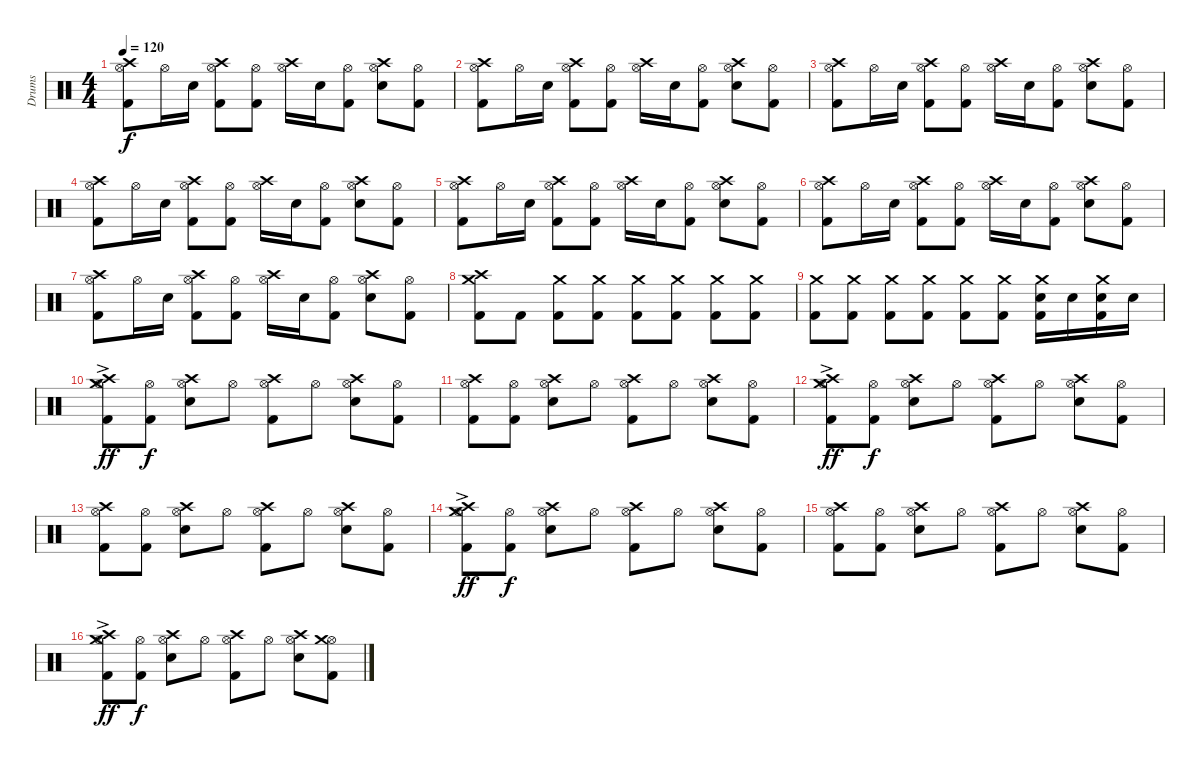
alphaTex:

\track ("Drums" "Drums") {instrument percussion}
\staff {score}
\articulation defaults
\ts (4 4)
\tempo 120
\clef neutral
\ks c
("Hi-Hat (open)" "Crash high (hit)" "Kick (hit) 2").8{dy f} "Hi-Hat (open)".16 "Electric Snare (hit)".16 ("Hi-Hat (open)" "Crash high (hit)" "Kick (hit) 2").8 ("Hi-Hat (open)" "Kick (hit) 2").8 ("Hi-Hat (open)" "Crash high (hit)").16 "Electric Snare (hit)".16 ("Hi-Hat (open)" "Kick (hit) 2").8 ("Hi-Hat (open)" "Crash high (hit)" "Electric Snare (hit)").8 ("Hi-Hat (open)" "Kick (hit) 2").8 |
("Hi-Hat (open)" "Crash high (hit)" "Kick (hit) 2").8 "Hi-Hat (open)".16 "Electric Snare (hit)".16 ("Hi-Hat (open)" "Crash high (hit)" "Kick (hit) 2").8 ("Hi-Hat (open)" "Kick (hit) 2").8 ("Hi-Hat (open)" "Crash high (hit)").16 "Electric Snare (hit)".16 ("Hi-Hat (open)" "Kick (hit) 2").8 ("Hi-Hat (open)" "Crash high (hit)" "Electric Snare (hit)").8 ("Hi-Hat (open)" "Kick (hit) 2").8 |
("Hi-Hat (open)" "Crash high (hit)" "Kick (hit) 2").8 "Hi-Hat (open)".16 "Electric Snare (hit)".16 ("Hi-Hat (open)" "Crash high (hit)" "Kick (hit) 2").8 ("Hi-Hat (open)" "Kick (hit) 2").8 ("Hi-Hat (open)" "Crash high (hit)").16 "Electric Snare (hit)".16 ("Hi-Hat (open)" "Kick (hit) 2").8 ("Hi-Hat (open)" "Crash high (hit)" "Electric Snare (hit)").8 ("Hi-Hat (open)" "Kick (hit) 2").8 |
("Hi-Hat (open)" "Crash high (hit)" "Kick (hit) 2").8 "Hi-Hat (open)".16 "Electric Snare (hit)".16 ("Hi-Hat (open)" "Crash high (hit)" "Kick (hit) 2").8 ("Hi-Hat (open)" "Kick (hit) 2").8 ("Hi-Hat (open)" "Crash high (hit)").16 "Electric Snare (hit)".16 ("Hi-Hat (open)" "Kick (hit) 2").8 ("Hi-Hat (open)" "Crash high (hit)" "Electric Snare (hit)").8 ("Hi-Hat (open)" "Kick (hit) 2").8 |
("Hi-Hat (open)" "Crash high (hit)" "Kick (hit) 2").8 "Hi-Hat (open)".16 "Electric Snare (hit)".16 ("Hi-Hat (open)" "Crash high (hit)" "Kick (hit) 2").8 ("Hi-Hat (open)" "Kick (hit) 2").8 ("Hi-Hat (open)" "Crash high (hit)").16 "Electric Snare (hit)".16 ("Hi-Hat (open)" "Kick (hit) 2").8 ("Hi-Hat (open)" "Crash high (hit)" "Electric Snare (hit)").8 ("Hi-Hat (open)" "Kick (hit) 2").8 |
("Hi-Hat (open)" "Crash high (hit)" "Kick (hit) 2").8 "Hi-Hat (open)".16 "Electric Snare (hit)".16 ("Hi-Hat (open)" "Crash high (hit)" "Kick (hit) 2").8 ("Hi-Hat (open)" "Kick (hit) 2").8 ("Hi-Hat (open)" "Crash high (hit)").16 "Electric Snare (hit)".16 ("Hi-Hat (open)" "Kick (hit) 2").8 ("Hi-Hat (open)" "Crash high (hit)" "Electric Snare (hit)").8 ("Hi-Hat (open)" "Kick (hit) 2").8 |
("Hi-Hat (open)" "Crash high (hit)" "Kick (hit) 2").8 "Hi-Hat (open)".16 "Electric Snare (hit)".16 ("Hi-Hat (open)" "Crash high (hit)" "Kick (hit) 2").8 ("Hi-Hat (open)" "Kick (hit) 2").8 ("Hi-Hat (open)" "Crash high (hit)").16 "Electric Snare (hit)".16 ("Hi-Hat (open)" "Kick (hit) 2").8 ("Hi-Hat (open)" "Crash high (hit)" "Electric Snare (hit)").8 ("Hi-Hat (open)" "Kick (hit) 2").8 |
("Crash high (hit)" "Crash medium (hit)" "Kick (hit) 2").8 "Kick (hit) 2".8{volume 2} ("Crash medium (hit)" "Kick (hit) 2").8{volume 13} ("Crash medium (hit)" "Kick (hit) 2").8 ("Crash medium (hit)" "Kick (hit) 2").8 ("Crash medium (hit)" "Kick (hit) 2").8 ("Crash medium (hit)" "Kick (hit) 2").8 ("Crash medium (hit)" "Kick (hit) 2").8 |
("Crash medium (hit)" "Kick (hit) 2").8 ("Crash medium (hit)" "Kick (hit) 2").8 ("Crash medium (hit)" "Kick (hit) 2").8 ("Crash medium (hit)" "Kick (hit) 2").8 ("Crash medium (hit)" "Kick (hit) 2").8 ("Crash medium (hit)" "Kick (hit) 2").8 ("Crash medium (hit)" "Electric Snare (hit)" "Kick (hit) 2").16 "Electric Snare (hit)".16 ("Crash medium (hit)" "Electric Snare (hit)" "Kick (hit) 2").16 "Electric Snare (hit)".16 |
("Crash high (hit)" "Hi-Hat (open)" "Crash medium (hit)"{ac} "Kick (hit) 2").8{dy ff} ("Hi-Hat (open)" "Kick (hit) 2").8{dy f} ("Crash high (hit)" "Hi-Hat (open)" "Electric Snare (hit)").8 "Hi-Hat (open)".8 ("Crash high (hit)" "Hi-Hat (open)" "Kick (hit) 2").8 "Hi-Hat (open)".8 ("Crash high (hit)" "Hi-Hat (open)" "Electric Snare (hit)").8 ("Hi-Hat (open)" "Kick (hit) 2").8 |
("Crash high (hit)" "Hi-Hat (open)" "Kick (hit) 2").8 ("Hi-Hat (open)" "Kick (hit) 2").8 ("Crash high (hit)" "Hi-Hat (open)" "Electric Snare (hit)").8 "Hi-Hat (open)".8 ("Crash high (hit)" "Hi-Hat (open)" "Kick (hit) 2").8 "Hi-Hat (open)".8 ("Crash high (hit)" "Hi-Hat (open)" "Electric Snare (hit)").8 ("Hi-Hat (open)" "Kick (hit) 2").8 |
("Crash high (hit)" "Hi-Hat (open)" "Crash medium (hit)"{ac} "Kick (hit) 2").8{dy ff} ("Hi-Hat (open)" "Kick (hit) 2").8{dy f} ("Crash high (hit)" "Hi-Hat (open)" "Electric Snare (hit)").8 "Hi-Hat (open)".8 ("Crash high (hit)" "Hi-Hat (open)" "Kick (hit) 2").8 "Hi-Hat (open)".8 ("Crash high (hit)" "Hi-Hat (open)" "Electric Snare (hit)").8 ("Hi-Hat (open)" "Kick (hit) 2").8 |
("Crash high (hit)" "Hi-Hat (open)" "Kick (hit) 2").8 ("Hi-Hat (open)" "Kick (hit) 2").8 ("Crash high (hit)" "Hi-Hat (open)" "Electric Snare (hit)").8 "Hi-Hat (open)".8 ("Crash high (hit)" "Hi-Hat (open)" "Kick (hit) 2").8 "Hi-Hat (open)".8 ("Crash high (hit)" "Hi-Hat (open)" "Electric Snare (hit)").8 ("Hi-Hat (open)" "Kick (hit) 2").8 |
("Crash high (hit)" "Hi-Hat (open)" "Crash medium (hit)"{ac} "Kick (hit) 2").8{dy ff} ("Hi-Hat (open)" "Kick (hit) 2").8{dy f} ("Crash high (hit)" "Hi-Hat (open)" "Electric Snare (hit)").8 "Hi-Hat (open)".8 ("Crash high (hit)" "Hi-Hat (open)" "Kick (hit) 2").8 "Hi-Hat (open)".8 ("Crash high (hit)" "Hi-Hat (open)" "Electric Snare (hit)").8 ("Hi-Hat (open)" "Kick (hit) 2").8 |
("Crash high (hit)" "Hi-Hat (open)" "Kick (hit) 2").8 ("Hi-Hat (open)" "Kick (hit) 2").8 ("Crash high (hit)" "Hi-Hat (open)" "Electric Snare (hit)").8 "Hi-Hat (open)".8 ("Crash high (hit)" "Hi-Hat (open)" "Kick (hit) 2").8 "Hi-Hat (open)".8 ("Crash high (hit)" "Hi-Hat (open)" "Electric Snare (hit)").8 ("Hi-Hat (open)" "Kick (hit) 2").8 |
("Crash high (hit)" "Hi-Hat (open)" "Crash medium (hit)"{ac} "Kick (hit) 2").8{dy ff} ("Hi-Hat (open)" "Kick (hit) 2").8{dy f} ("Crash high (hit)" "Hi-Hat (open)" "Electric Snare (hit)").8 "Hi-Hat (open)".8 ("Crash high (hit)" "Hi-Hat (open)" "Kick (hit) 2").8 "Hi-Hat (open)".8 ("Crash high (hit)" "Hi-Hat (open)" "Electric Snare (hit)").8 ("Hi-Hat (open)" "Crash medium (hit)" "Kick (hit) 2").8
